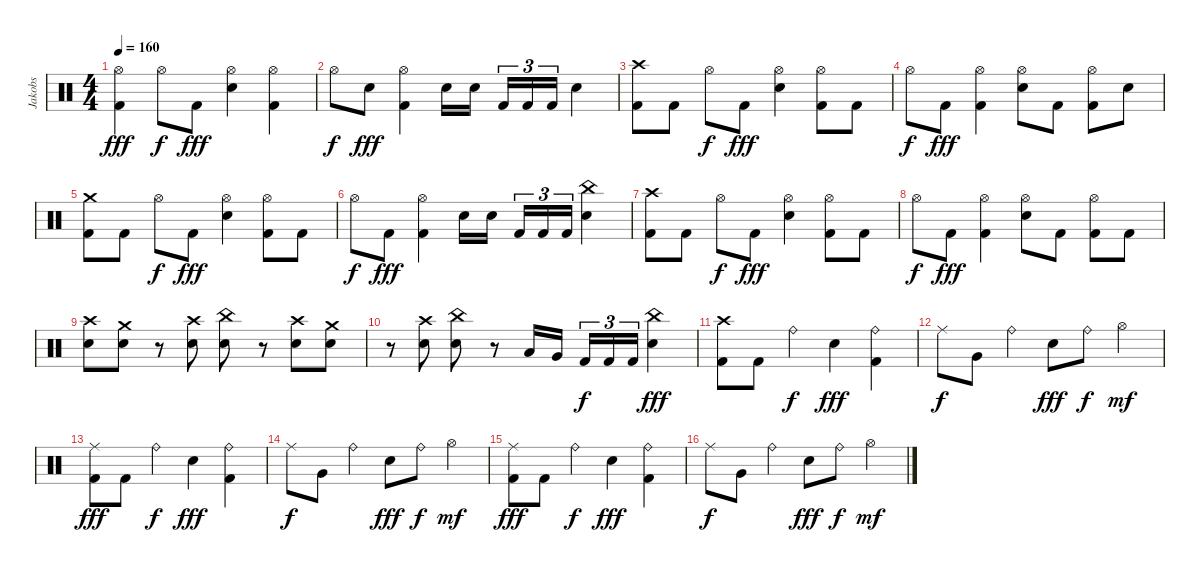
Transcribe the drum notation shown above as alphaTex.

\track ("Jakobs" "Jakobs") {instrument percussion}
\staff {score}
\articulation defaults
\ts (4 4)
\tempo 160
\clef neutral
\ks c
("Hi-Hat (open)" "Kick (hit) 2").4{dy fff} "Hi-Hat (open)".8{dy f} "Kick (hit) 2".8{dy fff} ("Hi-Hat (open)" "Snare (hit) 2").4 ("Hi-Hat (open)" "Kick (hit) 2").4 |
"Hi-Hat (open)".8{dy f} "Snare (hit) 2".8{dy fff} ("Hi-Hat (open)" "Kick (hit) 2").4 "Snare (hit) 2".16 "Snare (hit) 2".16 "Kick (hit) 2".16{tu (3 2)} "Kick (hit) 2".16{tu (3 2)} "Kick (hit) 2".16{tu (3 2)} "Snare (hit) 2".4 |
("Crash high (hit)" "Kick (hit) 2").8 "Kick (hit) 2".8 "Hi-Hat (open)".8{dy f} "Kick (hit) 2".8{dy fff} ("Hi-Hat (open)" "Snare (hit) 2").4 ("Hi-Hat (open)" "Kick (hit) 2").8 "Kick (hit) 2".8 |
"Hi-Hat (open)".8{dy f} "Kick (hit) 2".8{dy fff} ("Hi-Hat (open)" "Kick (hit) 2").4 ("Hi-Hat (open)" "Snare (hit) 2").8 "Kick (hit) 2".8 ("Hi-Hat (open)" "Kick (hit) 2").8 "Snare (hit) 2".8 |
("Crash medium (hit)" "Kick (hit) 2").8 "Kick (hit) 2".8 "Hi-Hat (open)".8{dy f} "Kick (hit) 2".8{dy fff} ("Hi-Hat (open)" "Snare (hit) 2").4 ("Hi-Hat (open)" "Kick (hit) 2").8 "Kick (hit) 2".8 |
"Hi-Hat (open)".8{dy f} "Kick (hit) 2".8{dy fff} ("Hi-Hat (open)" "Kick (hit) 2").4 "Snare (hit) 2".16 "Snare (hit) 2".16 "Kick (hit) 2".16{tu (3 2)} "Kick (hit) 2".16{tu (3 2)} "Kick (hit) 2".16{tu (3 2)} ("China (hit)" "Snare (hit) 2").4 |
("Crash high (hit)" "Kick (hit) 2").8 "Kick (hit) 2".8 "Hi-Hat (open)".8{dy f} "Kick (hit) 2".8{dy fff} ("Hi-Hat (open)" "Snare (hit) 2").4 ("Hi-Hat (open)" "Kick (hit) 2").8 "Kick (hit) 2".8 |
"Hi-Hat (open)".8{dy f} "Kick (hit) 2".8{dy fff} ("Hi-Hat (open)" "Kick (hit) 2").4 ("Hi-Hat (open)" "Snare (hit) 2").8 "Kick (hit) 2".8 ("Hi-Hat (open)" "Kick (hit) 2").8 "Kick (hit) 2".8 |
("Crash high (hit)" "Snare (hit) 2").8 ("Crash medium (hit)" "Snare (hit) 2").8 r.8 ("Crash high (hit)" "Snare (hit) 2").8 ("China (hit)" "Snare (hit) 2").8 r.8 ("Crash high (hit)" "Snare (hit) 2").8 ("Crash medium (hit)" "Snare (hit) 2").8 |
r.8 ("Crash high (hit)" "Snare (hit) 2").8 ("China (hit)" "Snare (hit) 2").8 r.8 "Low Tom (hit)".16 "Very Low Tom (hit)".16 "Kick (hit) 2".16{tu (3 2) dy f} "Kick (hit) 2".16{tu (3 2)} "Kick (hit) 2".16{tu (3 2)} ("China (hit)" "Snare (hit) 2").4{dy fff} |
("Crash high (hit)" "Kick (hit) 2").8 "Kick (hit) 2".8 "Ride (bell)".4{dy f} "Snare (hit) 2".4{dy fff} ("Ride (bell)" "Kick (hit) 2").4 |
"Ride (middle)".8{dy f} "Very Low Tom (hit)".8 "Ride (bell)".4 "Snare (hit) 2".8{dy fff} "Ride (bell)".8{dy f} "Hi-Hat (open)".4{dy mf} |
("Ride (middle)" "Kick (hit) 2").8{dy fff} "Kick (hit) 2".8 "Ride (bell)".4{dy f} "Snare (hit) 2".4{dy fff} ("Ride (bell)" "Kick (hit) 2").4 |
"Ride (middle)".8{dy f} "Very Low Tom (hit)".8 "Ride (bell)".4 "Snare (hit) 2".8{dy fff} "Ride (bell)".8{dy f} "Hi-Hat (open)".4{dy mf} |
("Ride (middle)" "Kick (hit) 2").8{dy fff} "Kick (hit) 2".8 "Ride (bell)".4{dy f} "Snare (hit) 2".4{dy fff} ("Ride (bell)" "Kick (hit) 2").4 |
"Ride (middle)".8{dy f} "Very Low Tom (hit)".8 "Ride (bell)".4 "Snare (hit) 2".8{dy fff} "Ride (bell)".8{dy f} "Hi-Hat (open)".4{dy mf}
